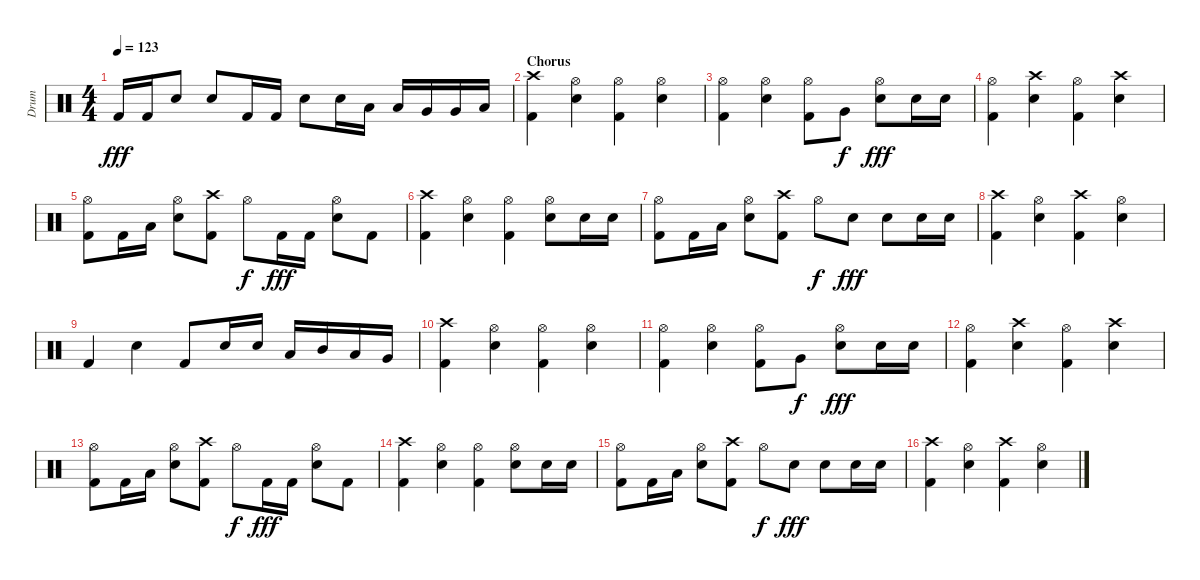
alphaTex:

\track ("Drum" "Drum") {instrument percussion}
\staff {score}
\articulation defaults
\ts (4 4)
\tempo 123
\clef neutral
\ks c "Kick (hit) 2".16{dy fff} "Kick (hit) 2".16 "Electric Snare (hit)".8 "Electric Snare (hit)".8 "Kick (hit) 2".16 "Kick (hit) 2".16 "Electric Snare (hit)".8 "Electric Snare (hit)".16 "Low Tom (hit)".16 "Low Tom (hit)".16 "Very Low Tom (hit)".16 "Very Low Tom (hit)".16 "Low Floor Tom (hit)".16
|
\section ("" "Chorus")
("Crash high (hit)" "Kick (hit) 2").4 ("Hi-Hat (open)" "Electric Snare (hit)").4 ("Hi-Hat (open)" "Kick (hit) 2").4 ("Hi-Hat (open)" "Electric Snare (hit)").4 |
("Hi-Hat (open)" "Kick (hit) 2").4 ("Hi-Hat (open)" "Electric Snare (hit)").4 ("Hi-Hat (open)" "Kick (hit) 2").8 "Very Low Tom (hit)".8{dy f} ("Hi-Hat (open)" "Electric Snare (hit)").8{dy fff} "Electric Snare (hit)".16 "Electric Snare (hit)".16 |
("Hi-Hat (open)" "Kick (hit) 2").4 ("Crash high (hit)" "Electric Snare (hit)").4 ("Hi-Hat (open)" "Kick (hit) 2").4 ("Crash high (hit)" "Electric Snare (hit)").4 |
("Hi-Hat (open)" "Kick (hit) 2").8 "Kick (hit) 2".16 "Low Tom (hit)".16 ("Hi-Hat (open)" "Electric Snare (hit)").8 ("Crash high (hit)" "Kick (hit) 2").8 "Hi-Hat (open)".8{dy f} "Kick (hit) 2".16{dy fff} "Kick (hit) 2".16 ("Hi-Hat (open)" "Electric Snare (hit)").8 "Kick (hit) 2".8 |
("Crash high (hit)" "Kick (hit) 2").4 ("Hi-Hat (open)" "Electric Snare (hit)").4 ("Hi-Hat (open)" "Kick (hit) 2").4 ("Hi-Hat (open)" "Electric Snare (hit)").8 "Electric Snare (hit)".16 "Electric Snare (hit)".16 |
("Hi-Hat (open)" "Kick (hit) 2").8 "Kick (hit) 2".16 "Low Tom (hit)".16 ("Hi-Hat (open)" "Electric Snare (hit)").8 ("Crash high (hit)" "Kick (hit) 2").8 "Hi-Hat (open)".8{dy f} "Electric Snare (hit)".8{dy fff} "Electric Snare (hit)".8 "Electric Snare (hit)".16 "Electric Snare (hit)".16 |
("Crash high (hit)" "Kick (hit) 2").4 ("Hi-Hat (open)" "Electric Snare (hit)").4 ("Crash high (hit)" "Kick (hit) 2").4 ("Hi-Hat (open)" "Electric Snare (hit)").4 |
"Kick (hit) 2".4 "Electric Snare (hit)".4 "Kick (hit) 2".8 "Electric Snare (hit)".16 "Electric Snare (hit)".16 "Low Tom (hit)".16 "Mid Tom (hit)".16 "Low Tom (hit)".16 "Very Low Tom (hit)".16 |
("Crash high (hit)" "Kick (hit) 2").4 ("Hi-Hat (open)" "Electric Snare (hit)").4 ("Hi-Hat (open)" "Kick (hit) 2").4 ("Hi-Hat (open)" "Electric Snare (hit)").4 |
("Hi-Hat (open)" "Kick (hit) 2").4 ("Hi-Hat (open)" "Electric Snare (hit)").4 ("Hi-Hat (open)" "Kick (hit) 2").8 "Very Low Tom (hit)".8{dy f} ("Hi-Hat (open)" "Electric Snare (hit)").8{dy fff} "Electric Snare (hit)".16 "Electric Snare (hit)".16 |
("Hi-Hat (open)" "Kick (hit) 2").4 ("Crash high (hit)" "Electric Snare (hit)").4 ("Hi-Hat (open)" "Kick (hit) 2").4 ("Crash high (hit)" "Electric Snare (hit)").4 |
("Hi-Hat (open)" "Kick (hit) 2").8 "Kick (hit) 2".16 "Low Tom (hit)".16 ("Hi-Hat (open)" "Electric Snare (hit)").8 ("Crash high (hit)" "Kick (hit) 2").8 "Hi-Hat (open)".8{dy f} "Kick (hit) 2".16{dy fff} "Kick (hit) 2".16 ("Hi-Hat (open)" "Electric Snare (hit)").8 "Kick (hit) 2".8 |
("Crash high (hit)" "Kick (hit) 2").4 ("Hi-Hat (open)" "Electric Snare (hit)").4 ("Hi-Hat (open)" "Kick (hit) 2").4 ("Hi-Hat (open)" "Electric Snare (hit)").8 "Electric Snare (hit)".16 "Electric Snare (hit)".16 |
("Hi-Hat (open)" "Kick (hit) 2").8 "Kick (hit) 2".16 "Low Tom (hit)".16 ("Hi-Hat (open)" "Electric Snare (hit)").8 ("Crash high (hit)" "Kick (hit) 2").8 "Hi-Hat (open)".8{dy f} "Electric Snare (hit)".8{dy fff} "Electric Snare (hit)".8 "Electric Snare (hit)".16 "Electric Snare (hit)".16 |
("Crash high (hit)" "Kick (hit) 2").4 ("Hi-Hat (open)" "Electric Snare (hit)").4 ("Crash high (hit)" "Kick (hit) 2").4 ("Hi-Hat (open)" "Electric Snare (hit)").4
